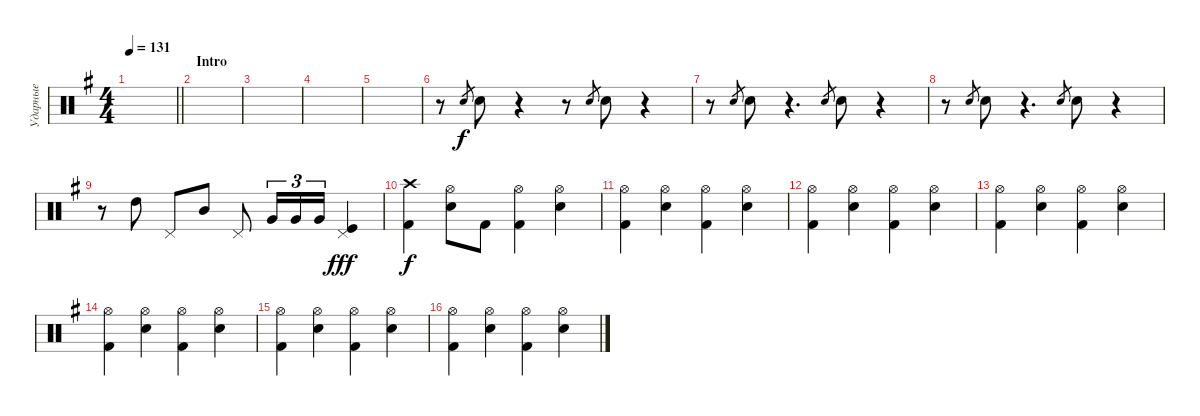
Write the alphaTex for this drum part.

\track ("Ударные" "Ударные") {instrument percussion}
\staff {score}
\articulation defaults
\ts (4 4)
\tempo 131
\clef neutral
\barLineRight lightlight
\ks eminor
|
\section ("" "Intro")
|
|
|
|
r.8 "Snare (hit) 2".8{gr} "Snare (hit) 2".8 r.4 r.8 "Snare (hit) 2".8{gr} "Snare (hit) 2".8 r.4 |
r.8 "Snare (hit) 2".8{gr} "Snare (hit) 2".8 r.4{d} "Snare (hit) 2".8{gr} "Snare (hit) 2".8 r.4 |
r.8 "Snare (hit) 2".8{gr} "Snare (hit) 2".8 r.4{d} "Snare (hit) 2".8{gr} "Snare (hit) 2".8 r.4 |
r.8 "High Tom (hit)".8 "Pedal Hi-Hat (hit)".8 "Mid Tom (hit)".8 "Pedal Hi-Hat (hit)".8 "Very Low Tom (hit)".16{tu (3 2)} "Very Low Tom (hit)".16{tu (3 2)} "Very Low Tom (hit)".16{tu (3 2)} ("Kick (hit)" "Pedal Hi-Hat (hit)").4{dy fff} |
("Crash high (hit)" "Kick (hit) 2").4{dy f} ("Hi-Hat (open)" "Snare (hit) 2").8 "Kick (hit) 2".8 ("Hi-Hat (open)" "Kick (hit) 2").4 ("Hi-Hat (open)" "Snare (hit) 2").4 |
("Hi-Hat (open)" "Kick (hit) 2").4 ("Hi-Hat (open)" "Snare (hit) 2").4 ("Hi-Hat (open)" "Kick (hit) 2").4 ("Hi-Hat (open)" "Snare (hit) 2").4 |
("Hi-Hat (open)" "Kick (hit) 2").4 ("Hi-Hat (open)" "Snare (hit) 2").4 ("Hi-Hat (open)" "Kick (hit) 2").4 ("Hi-Hat (open)" "Snare (hit) 2").4 |
("Hi-Hat (open)" "Kick (hit) 2").4 ("Hi-Hat (open)" "Snare (hit) 2").4 ("Hi-Hat (open)" "Kick (hit) 2").4 ("Hi-Hat (open)" "Snare (hit) 2").4 |
("Hi-Hat (open)" "Kick (hit) 2").4 ("Hi-Hat (open)" "Snare (hit) 2").4 ("Hi-Hat (open)" "Kick (hit) 2").4 ("Hi-Hat (open)" "Snare (hit) 2").4 |
("Hi-Hat (open)" "Kick (hit) 2").4 ("Hi-Hat (open)" "Snare (hit) 2").4 ("Hi-Hat (open)" "Kick (hit) 2").4 ("Hi-Hat (open)" "Snare (hit) 2").4 |
("Hi-Hat (open)" "Kick (hit) 2").4 ("Hi-Hat (open)" "Snare (hit) 2").4 ("Hi-Hat (open)" "Kick (hit) 2").4 ("Hi-Hat (open)" "Snare (hit) 2").4
